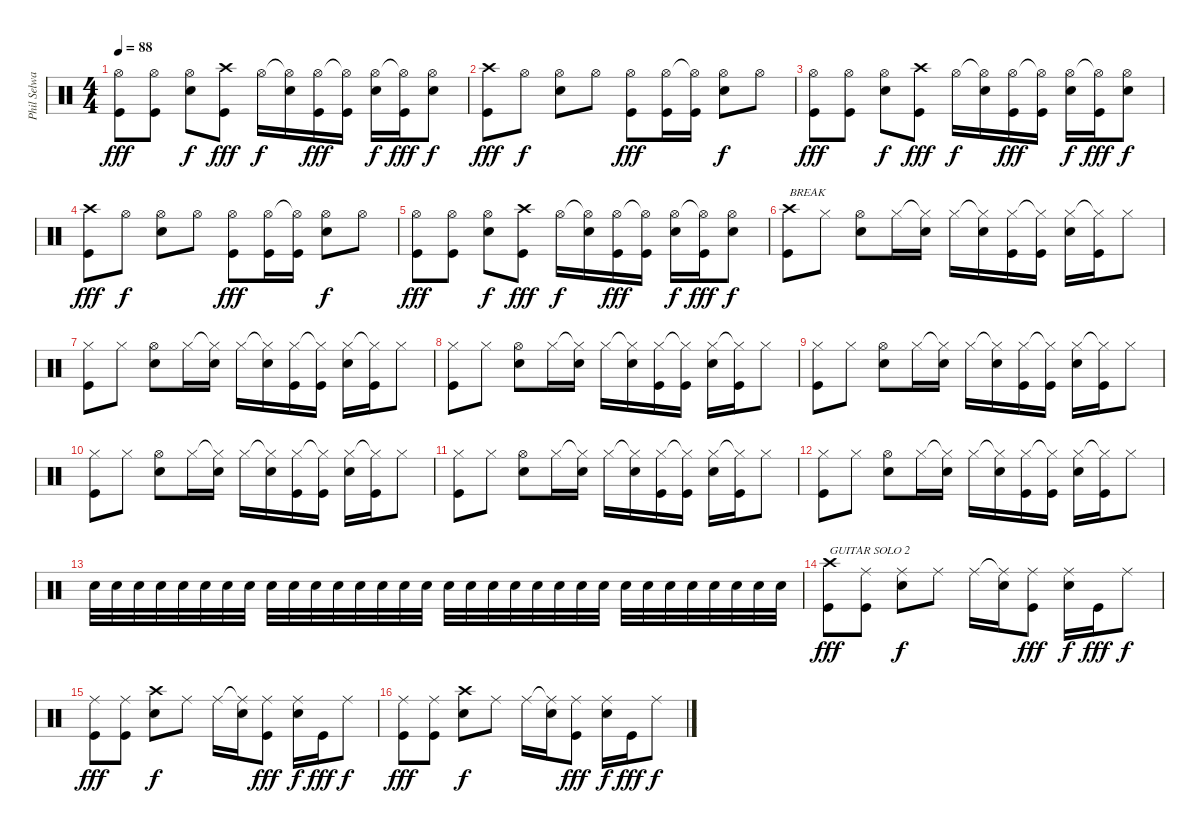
\track ("Phil Selway" "Phil Selwa") {instrument percussion}
\staff {score}
\articulation defaults
\ts (4 4)
\tempo 88
\clef neutral
\ks c
("Hi-Hat (open)" "Kick (hit)").8{dy fff} ("Hi-Hat (open)" "Kick (hit)").8 ("Hi-Hat (open)" "Snare (hit) 2").8{dy f} ("Crash high (hit)" "Kick (hit)").8{dy fff} "Hi-Hat (open)".16{dy f} ("Hi-Hat (open)"{t} "Snare (hit) 2").16 ("Hi-Hat (open)" "Kick (hit)").16{dy fff} ("Hi-Hat (open)"{t} "Kick (hit)").16 ("Hi-Hat (open)" "Snare (hit) 2").16{dy f} ("Hi-Hat (open)"{t} "Kick (hit)").16{dy fff} ("Hi-Hat (open)" "Snare (hit) 2").8{dy f} |
("Crash high (hit)" "Kick (hit)").8{dy fff} "Hi-Hat (open)".8{dy f} ("Hi-Hat (open)" "Snare (hit) 2").8 "Hi-Hat (open)".8 ("Hi-Hat (open)" "Kick (hit)").8{dy fff} ("Hi-Hat (open)" "Kick (hit)").16 ("Hi-Hat (open)"{t} "Kick (hit)").16 ("Hi-Hat (open)" "Snare (hit) 2").8{dy f} "Hi-Hat (open)".8 |
("Hi-Hat (open)" "Kick (hit)").8{dy fff} ("Hi-Hat (open)" "Kick (hit)").8 ("Hi-Hat (open)" "Snare (hit) 2").8{dy f} ("Crash high (hit)" "Kick (hit)").8{dy fff} "Hi-Hat (open)".16{dy f} ("Hi-Hat (open)"{t} "Snare (hit) 2").16 ("Hi-Hat (open)" "Kick (hit)").16{dy fff} ("Hi-Hat (open)"{t} "Kick (hit)").16 ("Hi-Hat (open)" "Snare (hit) 2").16{dy f} ("Hi-Hat (open)"{t} "Kick (hit)").16{dy fff} ("Hi-Hat (open)" "Snare (hit) 2").8{dy f} |
("Crash high (hit)" "Kick (hit)").8{dy fff} "Hi-Hat (open)".8{dy f} ("Hi-Hat (open)" "Snare (hit) 2").8 "Hi-Hat (open)".8 ("Hi-Hat (open)" "Kick (hit)").8{dy fff} ("Hi-Hat (open)" "Kick (hit)").16 ("Hi-Hat (open)"{t} "Kick (hit)").16 ("Hi-Hat (open)" "Snare (hit) 2").8{dy f} "Hi-Hat (open)".8 |
("Hi-Hat (open)" "Kick (hit)").8{dy fff} ("Hi-Hat (open)" "Kick (hit)").8 ("Hi-Hat (open)" "Snare (hit) 2").8{dy f} ("Crash high (hit)" "Kick (hit)").8{dy fff} "Hi-Hat (open)".16{dy f} ("Hi-Hat (open)"{t} "Snare (hit) 2").16 ("Hi-Hat (open)" "Kick (hit)").16{dy fff} ("Hi-Hat (open)"{t} "Kick (hit)").16 ("Hi-Hat (open)" "Snare (hit) 2").16{dy f} ("Hi-Hat (open)"{t} "Kick (hit)").16{dy fff} ("Hi-Hat (open)" "Snare (hit) 2").8{dy f} |
("Crash high (hit)" "Kick (hit)").8{txt "BREAK"} "Hi-Hat (closed)".8 ("Hi-Hat (open)" "Snare (hit) 2").8 "Hi-Hat (closed)".16 ("Hi-Hat (closed)"{t} "Snare (hit) 2").16 "Hi-Hat (closed)".16 ("Hi-Hat (closed)"{t} "Snare (hit) 2").16 ("Hi-Hat (closed)" "Kick (hit)").16 ("Hi-Hat (closed)"{t} "Kick (hit)").16 ("Hi-Hat (closed)" "Snare (hit) 2").16 ("Hi-Hat (closed)"{t} "Kick (hit)").16 "Hi-Hat (closed)".8 |
("Hi-Hat (closed)" "Kick (hit)").8 "Hi-Hat (closed)".8 ("Hi-Hat (open)" "Snare (hit) 2").8 "Hi-Hat (closed)".16 ("Hi-Hat (closed)"{t} "Snare (hit) 2").16 "Hi-Hat (closed)".16 ("Hi-Hat (closed)"{t} "Snare (hit) 2").16 ("Hi-Hat (closed)" "Kick (hit)").16 ("Hi-Hat (closed)"{t} "Kick (hit)").16 ("Hi-Hat (closed)" "Snare (hit) 2").16 ("Hi-Hat (closed)"{t} "Kick (hit)").16 "Hi-Hat (closed)".8 |
("Hi-Hat (closed)" "Kick (hit)").8 "Hi-Hat (closed)".8 ("Hi-Hat (open)" "Snare (hit) 2").8 "Hi-Hat (closed)".16 ("Hi-Hat (closed)"{t} "Snare (hit) 2").16 "Hi-Hat (closed)".16 ("Hi-Hat (closed)"{t} "Snare (hit) 2").16 ("Hi-Hat (closed)" "Kick (hit)").16 ("Hi-Hat (closed)"{t} "Kick (hit)").16 ("Hi-Hat (closed)" "Snare (hit) 2").16 ("Hi-Hat (closed)"{t} "Kick (hit)").16 "Hi-Hat (closed)".8 |
("Hi-Hat (closed)" "Kick (hit)").8 "Hi-Hat (closed)".8 ("Hi-Hat (open)" "Snare (hit) 2").8 "Hi-Hat (closed)".16 ("Hi-Hat (closed)"{t} "Snare (hit) 2").16 "Hi-Hat (closed)".16 ("Hi-Hat (closed)"{t} "Snare (hit) 2").16 ("Hi-Hat (closed)" "Kick (hit)").16 ("Hi-Hat (closed)"{t} "Kick (hit)").16 ("Hi-Hat (closed)" "Snare (hit) 2").16 ("Hi-Hat (closed)"{t} "Kick (hit)").16 "Hi-Hat (closed)".8 |
("Hi-Hat (closed)" "Kick (hit)").8 "Hi-Hat (closed)".8 ("Hi-Hat (open)" "Snare (hit) 2").8 "Hi-Hat (closed)".16 ("Hi-Hat (closed)"{t} "Snare (hit) 2").16 "Hi-Hat (closed)".16 ("Hi-Hat (closed)"{t} "Snare (hit) 2").16 ("Hi-Hat (closed)" "Kick (hit)").16 ("Hi-Hat (closed)"{t} "Kick (hit)").16 ("Hi-Hat (closed)" "Snare (hit) 2").16 ("Hi-Hat (closed)"{t} "Kick (hit)").16 "Hi-Hat (closed)".8 |
("Hi-Hat (closed)" "Kick (hit)").8 "Hi-Hat (closed)".8 ("Hi-Hat (open)" "Snare (hit) 2").8 "Hi-Hat (closed)".16 ("Hi-Hat (closed)"{t} "Snare (hit) 2").16 "Hi-Hat (closed)".16 ("Hi-Hat (closed)"{t} "Snare (hit) 2").16 ("Hi-Hat (closed)" "Kick (hit)").16 ("Hi-Hat (closed)"{t} "Kick (hit)").16 ("Hi-Hat (closed)" "Snare (hit) 2").16 ("Hi-Hat (closed)"{t} "Kick (hit)").16 "Hi-Hat (closed)".8 |
("Hi-Hat (closed)" "Kick (hit)").8 "Hi-Hat (closed)".8 ("Hi-Hat (open)" "Snare (hit) 2").8 "Hi-Hat (closed)".16 ("Hi-Hat (closed)"{t} "Snare (hit) 2").16 "Hi-Hat (closed)".16 ("Hi-Hat (closed)"{t} "Snare (hit) 2").16 ("Hi-Hat (closed)" "Kick (hit)").16 ("Hi-Hat (closed)"{t} "Kick (hit)").16 ("Hi-Hat (closed)" "Snare (hit) 2").16 ("Hi-Hat (closed)"{t} "Kick (hit)").16 "Hi-Hat (closed)".8 |
"Snare (hit) 2".32{volume 14} "Snare (hit) 2".32 "Snare (hit) 2".32 "Snare (hit) 2".32 "Snare (hit) 2".32 "Snare (hit) 2".32 "Snare (hit) 2".32 "Snare (hit) 2".32 "Snare (hit) 2".32 "Snare (hit) 2".32 "Snare (hit) 2".32 "Snare (hit) 2".32 "Snare (hit) 2".32 "Snare (hit) 2".32 "Snare (hit) 2".32 "Snare (hit) 2".32 "Snare (hit) 2".32 "Snare (hit) 2".32 "Snare (hit) 2".32 "Snare (hit) 2".32 "Snare (hit) 2".32 "Snare (hit) 2".32 "Snare (hit) 2".32 "Snare (hit) 2".32 "Snare (hit) 2".32 "Snare (hit) 2".32 "Snare (hit) 2".32 "Snare (hit) 2".32 "Snare (hit) 2".32 "Snare (hit) 2".32 "Snare (hit) 2".32 "Snare (hit) 2".32 |
("Crash high (hit)" "Kick (hit)").8{txt "GUITAR SOLO 2" dy fff volume 16} ("Ride (middle)" "Kick (hit)").8 ("Ride (middle)" "Snare (hit) 2").8{dy f} "Ride (middle)".8 "Ride (middle)".16 ("Ride (middle)"{t} "Snare (hit) 2").16 ("Ride (middle)" "Kick (hit)").8{dy fff} ("Ride (middle)" "Snare (hit) 2").16{dy f} "Kick (hit)".16{dy fff} "Ride (middle)".8{dy f} |
("Ride (middle)" "Kick (hit)").8{dy fff} ("Ride (middle)" "Kick (hit)").8 ("Crash high (hit)" "Snare (hit) 2").8{dy f} "Ride (middle)".8 "Ride (middle)".16 ("Ride (middle)"{t} "Snare (hit) 2").16 ("Ride (middle)" "Kick (hit)").8{dy fff} ("Ride (middle)" "Snare (hit) 2").16{dy f} "Kick (hit)".16{dy fff} "Ride (middle)".8{dy f} |
("Ride (middle)" "Kick (hit)").8{dy fff} ("Ride (middle)" "Kick (hit)").8 ("Crash high (hit)" "Snare (hit) 2").8{dy f} "Ride (middle)".8 "Ride (middle)".16 ("Ride (middle)"{t} "Snare (hit) 2").16 ("Ride (middle)" "Kick (hit)").8{dy fff} ("Ride (middle)" "Snare (hit) 2").16{dy f} "Kick (hit)".16{dy fff} "Ride (middle)".8{dy f}
